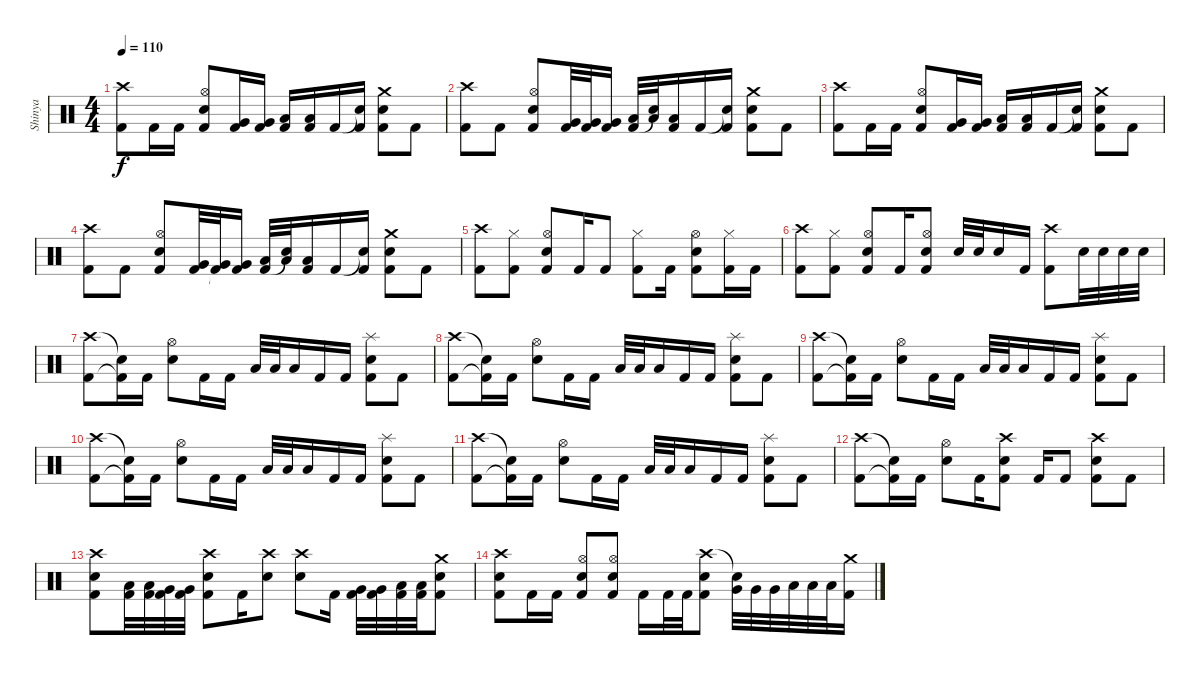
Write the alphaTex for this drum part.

\track ("Shinya" "Shinya") {instrument percussion}
\staff {score}
\articulation defaults
\ts (4 4)
\tempo 110
\clef neutral
\ks c
("Crash high (hit)" "Kick (hit) 2").8{dy f} "Kick (hit) 2".16 "Kick (hit) 2".16 ("Hi-Hat (open)" "Electric Snare (hit)" "Kick (hit) 2").8 ("Very Low Tom (hit)" "Kick (hit) 2").16 ("Very Low Tom (hit)" "Kick (hit) 2").16 ("Low Floor Tom (hit)" "Kick (hit) 2").16 ("Low Floor Tom (hit)" "Kick (hit) 2").16 "Kick (hit) 2".16 ("Snare (hit)"{t} "Kick (hit) 2").16 ("Crash medium (hit)" "Electric Snare (hit)" "Kick (hit) 2").8 "Kick (hit) 2".8 |
("Crash high (hit)" "Kick (hit) 2").8 "Kick (hit) 2".8 ("Hi-Hat (open)" "Electric Snare (hit)" "Kick (hit) 2").8 ("Very Low Tom (hit)" "Kick (hit) 2").32 ("Very Low Tom (hit)" "Kick (hit) 2"{t}).32 ("Very Low Tom (hit)" "Kick (hit) 2").16 ("Low Floor Tom (hit)" "Kick (hit) 2").32 ("Low Floor Tom (hit)" "Snare (hit)"{t}).32 ("Low Floor Tom (hit)" "Kick (hit) 2").16 "Kick (hit) 2".16 ("Snare (hit)"{t} "Kick (hit) 2").16 ("Crash medium (hit)" "Electric Snare (hit)" "Kick (hit) 2").8 "Kick (hit) 2".8 |
("Crash high (hit)" "Kick (hit) 2").8 "Kick (hit) 2".16 "Kick (hit) 2".16 ("Hi-Hat (open)" "Electric Snare (hit)" "Kick (hit) 2").8 ("Very Low Tom (hit)" "Kick (hit) 2").16 ("Very Low Tom (hit)" "Kick (hit) 2").16 ("Low Floor Tom (hit)" "Kick (hit) 2").16 ("Low Floor Tom (hit)" "Kick (hit) 2").16 "Kick (hit) 2".16 ("Snare (hit)"{t} "Kick (hit) 2").16 ("Crash medium (hit)" "Electric Snare (hit)" "Kick (hit) 2").8 "Kick (hit) 2".8 |
("Crash high (hit)" "Kick (hit) 2").8 "Kick (hit) 2".8 ("Hi-Hat (open)" "Electric Snare (hit)" "Kick (hit) 2").8 ("Very Low Tom (hit)" "Kick (hit) 2").32 ("Very Low Tom (hit)" "Kick (hit) 2"{t}).32 ("Very Low Tom (hit)" "Kick (hit) 2").16 ("Low Floor Tom (hit)" "Kick (hit) 2").32 ("Low Floor Tom (hit)" "Snare (hit)"{t}).32 ("Low Floor Tom (hit)" "Kick (hit) 2").16 "Kick (hit) 2".16 ("Snare (hit)"{t} "Kick (hit) 2").16 ("Crash medium (hit)" "Electric Snare (hit)" "Kick (hit) 2").8 "Kick (hit) 2".8 |
("Crash high (hit)" "Kick (hit) 2").8 ("Hi-Hat (closed)" "Kick (hit) 2").8 ("Hi-Hat (open)" "Electric Snare (hit)" "Kick (hit) 2").8 "Kick (hit) 2".16 "Kick (hit) 2".8 ("Hi-Hat (closed)" "Kick (hit) 2").8 "Kick (hit) 2".16 ("Hi-Hat (open)" "Electric Snare (hit)" "Kick (hit) 2").8 ("Hi-Hat (closed)" "Kick (hit) 2").16 "Kick (hit) 2".16 |
("Crash high (hit)" "Kick (hit) 2").8 ("Hi-Hat (closed)" "Kick (hit) 2").8 ("Hi-Hat (open)" "Electric Snare (hit)" "Kick (hit) 2").8 "Kick (hit) 2".16 ("Hi-Hat (open)" "Electric Snare (hit)" "Kick (hit) 2").8 "Electric Snare (hit)".32 "Electric Snare (hit)".32 "Electric Snare (hit)".16 "Kick (hit) 2".16 ("Crash high (hit)" "Kick (hit) 2").8 "Electric Snare (hit)".32 "Electric Snare (hit)".32 "Electric Snare (hit)".32 "Electric Snare (hit)".32 |
("Crash high (hit)" "Kick (hit) 2").8 ("Snare (hit)"{t} "Kick (hit) 2"{t}).16 "Kick (hit) 2".16 ("Hi-Hat (open)" "Electric Snare (hit)").8 "Kick (hit) 2".16 "Kick (hit) 2".16 "Low Floor Tom (hit)".32 "Low Floor Tom (hit)".32 "Low Floor Tom (hit)".16 "Kick (hit) 2".16 "Kick (hit) 2".16 ("Splash (hit)" "Electric Snare (hit)" "Kick (hit) 2").8 "Kick (hit) 2".8 |
("Crash high (hit)" "Kick (hit) 2").8 ("Snare (hit)"{t} "Kick (hit) 2"{t}).16 "Kick (hit) 2".16 ("Hi-Hat (open)" "Electric Snare (hit)").8 "Kick (hit) 2".16 "Kick (hit) 2".16 "Low Floor Tom (hit)".32 "Low Floor Tom (hit)".32 "Low Floor Tom (hit)".16 "Kick (hit) 2".16 "Kick (hit) 2".16 ("Splash (hit)" "Electric Snare (hit)" "Kick (hit) 2").8 "Kick (hit) 2".8 |
("Crash high (hit)" "Kick (hit) 2").8 ("Snare (hit)"{t} "Kick (hit) 2"{t}).16 "Kick (hit) 2".16 ("Hi-Hat (open)" "Electric Snare (hit)").8 "Kick (hit) 2".16 "Kick (hit) 2".16 "Low Floor Tom (hit)".32 "Low Floor Tom (hit)".32 "Low Floor Tom (hit)".16 "Kick (hit) 2".16 "Kick (hit) 2".16 ("Splash (hit)" "Electric Snare (hit)" "Kick (hit) 2").8 "Kick (hit) 2".8 |
("Crash high (hit)" "Kick (hit) 2").8 ("Snare (hit)"{t} "Kick (hit) 2"{t}).16 "Kick (hit) 2".16 ("Hi-Hat (open)" "Electric Snare (hit)").8 "Kick (hit) 2".16 "Kick (hit) 2".16 "Low Floor Tom (hit)".32 "Low Floor Tom (hit)".32 "Low Floor Tom (hit)".16 "Kick (hit) 2".16 "Kick (hit) 2".16 ("Splash (hit)" "Electric Snare (hit)" "Kick (hit) 2").8 "Kick (hit) 2".8 |
("Crash high (hit)" "Kick (hit) 2").8 ("Snare (hit)"{t} "Kick (hit) 2"{t}).16 "Kick (hit) 2".16 ("Hi-Hat (open)" "Electric Snare (hit)").8 "Kick (hit) 2".16 "Kick (hit) 2".16 "Low Floor Tom (hit)".32 "Low Floor Tom (hit)".32 "Low Floor Tom (hit)".16 "Kick (hit) 2".16 "Kick (hit) 2".16 ("Splash (hit)" "Electric Snare (hit)" "Kick (hit) 2").8 "Kick (hit) 2".8 |
("Crash high (hit)" "Kick (hit) 2").8 ("Snare (hit)"{t} "Kick (hit) 2"{t}).16 "Kick (hit) 2".16 ("Hi-Hat (open)" "Electric Snare (hit)").8 "Kick (hit) 2".16 ("Crash high (hit)" "Electric Snare (hit)" "Kick (hit) 2").8 "Kick (hit) 2".16 "Kick (hit) 2".8 ("Crash high (hit)" "Electric Snare (hit)" "Kick (hit) 2").8 "Kick (hit) 2".8 |
("Crash high (hit)" "Snare (hit) 2" "Kick (hit) 2").8 ("Low Tom (hit)" "Kick (hit) 2").32 ("Low Tom (hit)" "Kick (hit) 2").32 ("Very Low Tom (hit)" "Kick (hit) 2").32 ("Very Low Tom (hit)" "Kick (hit) 2").32 ("Crash high (hit)" "Electric Snare (hit)" "Kick (hit) 2").8 "Kick (hit) 2".16 ("Crash high (hit)" "Electric Snare (hit)").8 ("Crash high (hit)" "Electric Snare (hit)").8 "Kick (hit) 2".16 ("Very Low Tom (hit)" "Kick (hit) 2").32 ("Very Low Tom (hit)" "Kick (hit) 2").32 ("Low Floor Tom (hit)" "Kick (hit) 2").32 ("Low Floor Tom (hit)" "Kick (hit) 2").32 ("Crash medium (hit)" "Electric Snare (hit)" "Kick (hit) 2").8 |
("Crash high (hit)" "Electric Snare (hit)" "Kick (hit) 2").8 "Kick (hit) 2".16 "Kick (hit) 2".16 ("Hi-Hat (open)" "Electric Snare (hit)" "Kick (hit) 2").8 ("Hi-Hat (open)" "Electric Snare (hit)" "Kick (hit) 2").8 "Kick (hit) 2".16 "Kick (hit) 2".32 "Kick (hit) 2".32 ("Crash high (hit)" "Electric Snare (hit)" "Kick (hit) 2").8 ("Snare (hit)"{t} "Very Low Tom (hit)").32 "Very Low Tom (hit)".32 "Very Low Tom (hit)".32 "Low Floor Tom (hit)".32 "Low Floor Tom (hit)".32 "Low Floor Tom (hit)".32 ("Crash medium (hit)" "Kick (hit) 2").16
